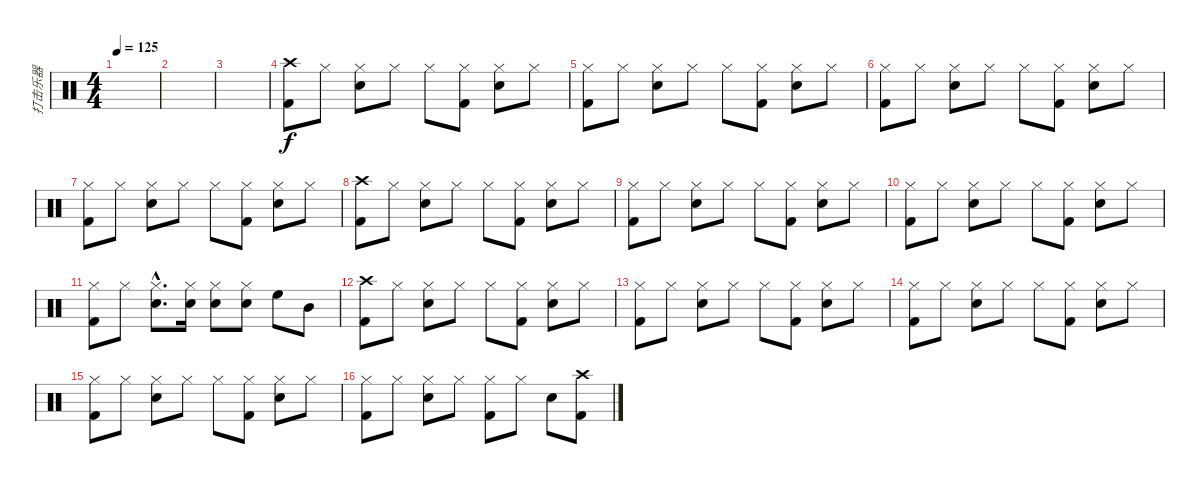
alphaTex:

\track ("打击乐器" "打击乐器") {instrument percussion}
\staff {score}
\articulation defaults
\ts (4 4)
\tempo 125
\clef neutral
\ks c
|
|
|
("Crash high (hit)" "Kick (hit) 2").8 "Hi-Hat (closed)".8 ("Hi-Hat (closed)" "Snare (hit) 2").8 "Hi-Hat (closed)".8 "Hi-Hat (closed)".8 ("Hi-Hat (closed)" "Kick (hit) 2").8 ("Hi-Hat (closed)" "Snare (hit) 2").8 "Hi-Hat (closed)".8 |
("Hi-Hat (closed)" "Kick (hit) 2").8 "Hi-Hat (closed)".8 ("Hi-Hat (closed)" "Snare (hit) 2").8 "Hi-Hat (closed)".8 "Hi-Hat (closed)".8 ("Hi-Hat (closed)" "Kick (hit) 2").8 ("Hi-Hat (closed)" "Snare (hit) 2").8 "Hi-Hat (closed)".8 |
("Hi-Hat (closed)" "Kick (hit) 2").8 "Hi-Hat (closed)".8 ("Hi-Hat (closed)" "Snare (hit) 2").8 "Hi-Hat (closed)".8 "Hi-Hat (closed)".8 ("Hi-Hat (closed)" "Kick (hit) 2").8 ("Hi-Hat (closed)" "Snare (hit) 2").8 "Hi-Hat (closed)".8 |
("Hi-Hat (closed)" "Kick (hit) 2").8 "Hi-Hat (closed)".8 ("Hi-Hat (closed)" "Snare (hit) 2").8 "Hi-Hat (closed)".8 "Hi-Hat (closed)".8 ("Hi-Hat (closed)" "Kick (hit) 2").8 ("Hi-Hat (closed)" "Snare (hit) 2").8 "Hi-Hat (closed)".8 |
("Crash high (hit)" "Kick (hit) 2").8 "Hi-Hat (closed)".8 ("Hi-Hat (closed)" "Snare (hit) 2").8 "Hi-Hat (closed)".8 "Hi-Hat (closed)".8 ("Hi-Hat (closed)" "Kick (hit) 2").8 ("Hi-Hat (closed)" "Snare (hit) 2").8 "Hi-Hat (closed)".8 |
("Hi-Hat (closed)" "Kick (hit) 2").8 "Hi-Hat (closed)".8 ("Hi-Hat (closed)" "Snare (hit) 2").8 "Hi-Hat (closed)".8 "Hi-Hat (closed)".8 ("Hi-Hat (closed)" "Kick (hit) 2").8 ("Hi-Hat (closed)" "Snare (hit) 2").8 "Hi-Hat (closed)".8 |
("Hi-Hat (closed)" "Kick (hit) 2").8 "Hi-Hat (closed)".8 ("Hi-Hat (closed)" "Snare (hit) 2").8 "Hi-Hat (closed)".8 "Hi-Hat (closed)".8 ("Hi-Hat (closed)" "Kick (hit) 2").8 ("Hi-Hat (closed)" "Snare (hit) 2").8 "Hi-Hat (closed)".8 |
("Hi-Hat (closed)" "Kick (hit) 2").8 "Hi-Hat (closed)".8 ("Hi-Hat (closed)"{hac} "Snare (hit) 2"{hac}).8{d} ("Hi-Hat (closed)" "Snare (hit) 2").16 ("Hi-Hat (closed)" "Snare (hit) 2").8 ("Hi-Hat (closed)" "Snare (hit) 2").8 "High Floor Tom (hit)".8 "Mid Tom (hit)".8 |
("Crash high (hit)" "Kick (hit) 2").8 "Hi-Hat (closed)".8 ("Hi-Hat (closed)" "Snare (hit) 2").8 "Hi-Hat (closed)".8 "Hi-Hat (closed)".8 ("Hi-Hat (closed)" "Kick (hit) 2").8 ("Hi-Hat (closed)" "Snare (hit) 2").8 "Hi-Hat (closed)".8 |
("Hi-Hat (closed)" "Kick (hit) 2").8 "Hi-Hat (closed)".8 ("Hi-Hat (closed)" "Snare (hit) 2").8 "Hi-Hat (closed)".8 "Hi-Hat (closed)".8 ("Hi-Hat (closed)" "Kick (hit) 2").8 ("Hi-Hat (closed)" "Snare (hit) 2").8 "Hi-Hat (closed)".8 |
("Hi-Hat (closed)" "Kick (hit) 2").8 "Hi-Hat (closed)".8 ("Hi-Hat (closed)" "Snare (hit) 2").8 "Hi-Hat (closed)".8 "Hi-Hat (closed)".8 ("Hi-Hat (closed)" "Kick (hit) 2").8 ("Hi-Hat (closed)" "Snare (hit) 2").8 "Hi-Hat (closed)".8 |
("Hi-Hat (closed)" "Kick (hit) 2").8 "Hi-Hat (closed)".8 ("Hi-Hat (closed)" "Snare (hit) 2").8 "Hi-Hat (closed)".8 "Hi-Hat (closed)".8 ("Hi-Hat (closed)" "Kick (hit) 2").8 ("Hi-Hat (closed)" "Snare (hit) 2").8 "Hi-Hat (closed)".8 |
("Hi-Hat (closed)" "Kick (hit) 2").8 "Hi-Hat (closed)".8 ("Hi-Hat (closed)" "Snare (hit) 2").8 "Hi-Hat (closed)".8 ("Hi-Hat (closed)" "Kick (hit) 2").8 "Hi-Hat (closed)".8 "Snare (hit) 2".8 ("Crash high (hit)" "Kick (hit) 2").8
